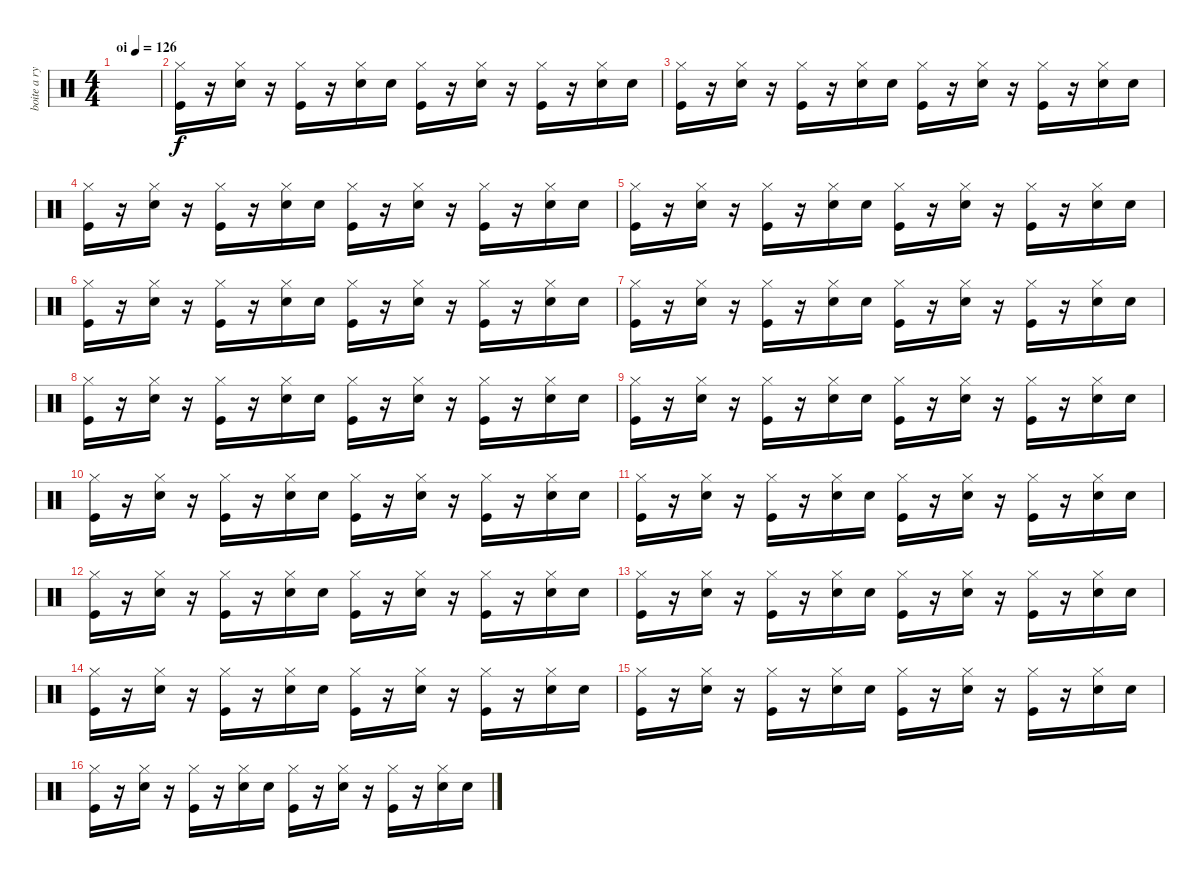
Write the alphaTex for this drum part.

\track ("boite a rythme ( Jean-Francois ) " "boite a ry") {instrument percussion}
\staff {score}
\articulation defaults
\ts (4 4)
\tempo (126 "oi")
\clef neutral
\ks c
|
("Hi-Hat (closed)" "Kick (hit)").16 r.16 ("Hi-Hat (closed)" "Snare (hit) 2").16 r.16 ("Hi-Hat (closed)" "Kick (hit)").16 r.16 ("Hi-Hat (closed)" "Snare (hit) 2").16 "Snare (hit) 2".16 ("Hi-Hat (closed)" "Kick (hit)").16 r.16 ("Hi-Hat (closed)" "Snare (hit) 2").16 r.16 ("Hi-Hat (closed)" "Kick (hit)").16 r.16 ("Hi-Hat (closed)" "Snare (hit) 2").16 "Snare (hit) 2".16 |
("Hi-Hat (closed)" "Kick (hit)").16 r.16 ("Hi-Hat (closed)" "Snare (hit) 2").16 r.16 ("Hi-Hat (closed)" "Kick (hit)").16 r.16 ("Hi-Hat (closed)" "Snare (hit) 2").16 "Snare (hit) 2".16 ("Hi-Hat (closed)" "Kick (hit)").16 r.16 ("Hi-Hat (closed)" "Snare (hit) 2").16 r.16 ("Hi-Hat (closed)" "Kick (hit)").16 r.16 ("Hi-Hat (closed)" "Snare (hit) 2").16 "Snare (hit) 2".16 |
("Hi-Hat (closed)" "Kick (hit)").16 r.16 ("Hi-Hat (closed)" "Snare (hit) 2").16 r.16 ("Hi-Hat (closed)" "Kick (hit)").16 r.16 ("Hi-Hat (closed)" "Snare (hit) 2").16 "Snare (hit) 2".16 ("Hi-Hat (closed)" "Kick (hit)").16 r.16 ("Hi-Hat (closed)" "Snare (hit) 2").16 r.16 ("Hi-Hat (closed)" "Kick (hit)").16 r.16 ("Hi-Hat (closed)" "Snare (hit) 2").16 "Snare (hit) 2".16 |
("Hi-Hat (closed)" "Kick (hit)").16 r.16 ("Hi-Hat (closed)" "Snare (hit) 2").16 r.16 ("Hi-Hat (closed)" "Kick (hit)").16 r.16 ("Hi-Hat (closed)" "Snare (hit) 2").16 "Snare (hit) 2".16 ("Hi-Hat (closed)" "Kick (hit)").16 r.16 ("Hi-Hat (closed)" "Snare (hit) 2").16 r.16 ("Hi-Hat (closed)" "Kick (hit)").16 r.16 ("Hi-Hat (closed)" "Snare (hit) 2").16 "Snare (hit) 2".16 |
("Hi-Hat (closed)" "Kick (hit)").16 r.16 ("Hi-Hat (closed)" "Snare (hit) 2").16 r.16 ("Hi-Hat (closed)" "Kick (hit)").16 r.16 ("Hi-Hat (closed)" "Snare (hit) 2").16 "Snare (hit) 2".16 ("Hi-Hat (closed)" "Kick (hit)").16 r.16 ("Hi-Hat (closed)" "Snare (hit) 2").16 r.16 ("Hi-Hat (closed)" "Kick (hit)").16 r.16 ("Hi-Hat (closed)" "Snare (hit) 2").16 "Snare (hit) 2".16 |
("Hi-Hat (closed)" "Kick (hit)").16 r.16 ("Hi-Hat (closed)" "Snare (hit) 2").16 r.16 ("Hi-Hat (closed)" "Kick (hit)").16 r.16 ("Hi-Hat (closed)" "Snare (hit) 2").16 "Snare (hit) 2".16 ("Hi-Hat (closed)" "Kick (hit)").16 r.16 ("Hi-Hat (closed)" "Snare (hit) 2").16 r.16 ("Hi-Hat (closed)" "Kick (hit)").16 r.16 ("Hi-Hat (closed)" "Snare (hit) 2").16 "Snare (hit) 2".16 |
("Hi-Hat (closed)" "Kick (hit)").16 r.16 ("Hi-Hat (closed)" "Snare (hit) 2").16 r.16 ("Hi-Hat (closed)" "Kick (hit)").16 r.16 ("Hi-Hat (closed)" "Snare (hit) 2").16 "Snare (hit) 2".16 ("Hi-Hat (closed)" "Kick (hit)").16 r.16 ("Hi-Hat (closed)" "Snare (hit) 2").16 r.16 ("Hi-Hat (closed)" "Kick (hit)").16 r.16 ("Hi-Hat (closed)" "Snare (hit) 2").16 "Snare (hit) 2".16 |
("Hi-Hat (closed)" "Kick (hit)").16 r.16 ("Hi-Hat (closed)" "Snare (hit) 2").16 r.16 ("Hi-Hat (closed)" "Kick (hit)").16 r.16 ("Hi-Hat (closed)" "Snare (hit) 2").16 "Snare (hit) 2".16 ("Hi-Hat (closed)" "Kick (hit)").16 r.16 ("Hi-Hat (closed)" "Snare (hit) 2").16 r.16 ("Hi-Hat (closed)" "Kick (hit)").16 r.16 ("Hi-Hat (closed)" "Snare (hit) 2").16 "Snare (hit) 2".16 |
("Hi-Hat (closed)" "Kick (hit)").16 r.16 ("Hi-Hat (closed)" "Snare (hit) 2").16 r.16 ("Hi-Hat (closed)" "Kick (hit)").16 r.16 ("Hi-Hat (closed)" "Snare (hit) 2").16 "Snare (hit) 2".16 ("Hi-Hat (closed)" "Kick (hit)").16 r.16 ("Hi-Hat (closed)" "Snare (hit) 2").16 r.16 ("Hi-Hat (closed)" "Kick (hit)").16 r.16 ("Hi-Hat (closed)" "Snare (hit) 2").16 "Snare (hit) 2".16 |
("Hi-Hat (closed)" "Kick (hit)").16 r.16 ("Hi-Hat (closed)" "Snare (hit) 2").16 r.16 ("Hi-Hat (closed)" "Kick (hit)").16 r.16 ("Hi-Hat (closed)" "Snare (hit) 2").16 "Snare (hit) 2".16 ("Hi-Hat (closed)" "Kick (hit)").16 r.16 ("Hi-Hat (closed)" "Snare (hit) 2").16 r.16 ("Hi-Hat (closed)" "Kick (hit)").16 r.16 ("Hi-Hat (closed)" "Snare (hit) 2").16 "Snare (hit) 2".16 |
("Hi-Hat (closed)" "Kick (hit)").16 r.16 ("Hi-Hat (closed)" "Snare (hit) 2").16 r.16 ("Hi-Hat (closed)" "Kick (hit)").16 r.16 ("Hi-Hat (closed)" "Snare (hit) 2").16 "Snare (hit) 2".16 ("Hi-Hat (closed)" "Kick (hit)").16 r.16 ("Hi-Hat (closed)" "Snare (hit) 2").16 r.16 ("Hi-Hat (closed)" "Kick (hit)").16 r.16 ("Hi-Hat (closed)" "Snare (hit) 2").16 "Snare (hit) 2".16 |
("Hi-Hat (closed)" "Kick (hit)").16 r.16 ("Hi-Hat (closed)" "Snare (hit) 2").16 r.16 ("Hi-Hat (closed)" "Kick (hit)").16 r.16 ("Hi-Hat (closed)" "Snare (hit) 2").16 "Snare (hit) 2".16 ("Hi-Hat (closed)" "Kick (hit)").16 r.16 ("Hi-Hat (closed)" "Snare (hit) 2").16 r.16 ("Hi-Hat (closed)" "Kick (hit)").16 r.16 ("Hi-Hat (closed)" "Snare (hit) 2").16 "Snare (hit) 2".16 |
("Hi-Hat (closed)" "Kick (hit)").16 r.16 ("Hi-Hat (closed)" "Snare (hit) 2").16 r.16 ("Hi-Hat (closed)" "Kick (hit)").16 r.16 ("Hi-Hat (closed)" "Snare (hit) 2").16 "Snare (hit) 2".16 ("Hi-Hat (closed)" "Kick (hit)").16 r.16 ("Hi-Hat (closed)" "Snare (hit) 2").16 r.16 ("Hi-Hat (closed)" "Kick (hit)").16 r.16 ("Hi-Hat (closed)" "Snare (hit) 2").16 "Snare (hit) 2".16 |
("Hi-Hat (closed)" "Kick (hit)").16 r.16 ("Hi-Hat (closed)" "Snare (hit) 2").16 r.16 ("Hi-Hat (closed)" "Kick (hit)").16 r.16 ("Hi-Hat (closed)" "Snare (hit) 2").16 "Snare (hit) 2".16 ("Hi-Hat (closed)" "Kick (hit)").16 r.16 ("Hi-Hat (closed)" "Snare (hit) 2").16 r.16 ("Hi-Hat (closed)" "Kick (hit)").16 r.16 ("Hi-Hat (closed)" "Snare (hit) 2").16 "Snare (hit) 2".16 |
("Hi-Hat (closed)" "Kick (hit)").16 r.16 ("Hi-Hat (closed)" "Snare (hit) 2").16 r.16 ("Hi-Hat (closed)" "Kick (hit)").16 r.16 ("Hi-Hat (closed)" "Snare (hit) 2").16 "Snare (hit) 2".16 ("Hi-Hat (closed)" "Kick (hit)").16 r.16 ("Hi-Hat (closed)" "Snare (hit) 2").16 r.16 ("Hi-Hat (closed)" "Kick (hit)").16 r.16 ("Hi-Hat (closed)" "Snare (hit) 2").16 "Snare (hit) 2".16
